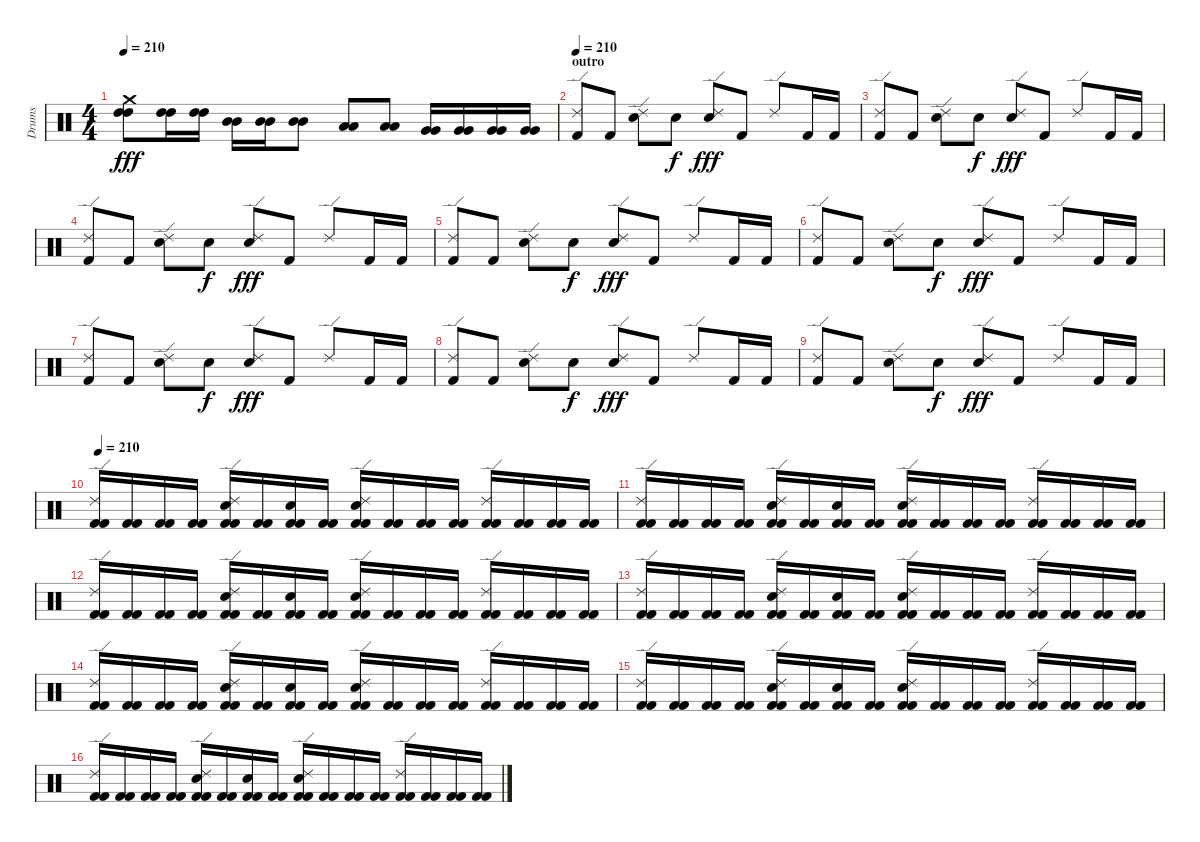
\track ("Drums" "Drums") {instrument percussion}
\staff {score}
\articulation defaults
\ts (4 4)
\tempo 210
\clef neutral
\ks c
("Crash medium (hit)" "High Tom (hit)" "High Tom (hit)").8{dy fff} ("High Tom (hit)" "High Tom (hit)").16 ("High Tom (hit)" "High Tom (hit)").16 ("Mid Tom (hit)" "Mid Tom (hit)").16 ("Mid Tom (hit)" "Mid Tom (hit)").16 ("Mid Tom (hit)" "Mid Tom (hit)").8 ("Low Tom (hit)" "Low Tom (hit)").8 ("Low Tom (hit)" "Low Tom (hit)").8 ("Very Low Tom (hit)" "Very Low Tom (hit)").16 ("Very Low Tom (hit)" "Very Low Tom (hit)").16 ("Very Low Tom (hit)" "Very Low Tom (hit)").16 ("Very Low Tom (hit)" "Very Low Tom (hit)").16 |
\section ("" "outro")
\tempo 210
("Ride (edge) 2" "Kick (hit) 2").8 "Kick (hit) 2".8 ("Ride (edge) 2" "Electric Snare (hit)").8 "Electric Snare (hit)".8{dy f} ("Ride (edge) 2" "Electric Snare (hit)").8{dy fff} "Kick (hit) 2".8 "Ride (edge) 2".8 "Kick (hit) 2".16 "Kick (hit) 2".16 |
("Ride (edge) 2" "Kick (hit) 2").8 "Kick (hit) 2".8 ("Ride (edge) 2" "Electric Snare (hit)").8 "Electric Snare (hit)".8{dy f} ("Ride (edge) 2" "Electric Snare (hit)").8{dy fff} "Kick (hit) 2".8 "Ride (edge) 2".8 "Kick (hit) 2".16 "Kick (hit) 2".16 |
("Ride (edge) 2" "Kick (hit) 2").8 "Kick (hit) 2".8 ("Ride (edge) 2" "Electric Snare (hit)").8 "Electric Snare (hit)".8{dy f} ("Ride (edge) 2" "Electric Snare (hit)").8{dy fff} "Kick (hit) 2".8 "Ride (edge) 2".8 "Kick (hit) 2".16 "Kick (hit) 2".16 |
("Ride (edge) 2" "Kick (hit) 2").8 "Kick (hit) 2".8 ("Ride (edge) 2" "Electric Snare (hit)").8 "Electric Snare (hit)".8{dy f} ("Ride (edge) 2" "Electric Snare (hit)").8{dy fff} "Kick (hit) 2".8 "Ride (edge) 2".8 "Kick (hit) 2".16 "Kick (hit) 2".16 |
("Ride (edge) 2" "Kick (hit) 2").8 "Kick (hit) 2".8 ("Ride (edge) 2" "Electric Snare (hit)").8 "Electric Snare (hit)".8{dy f} ("Ride (edge) 2" "Electric Snare (hit)").8{dy fff} "Kick (hit) 2".8 "Ride (edge) 2".8 "Kick (hit) 2".16 "Kick (hit) 2".16 |
("Ride (edge) 2" "Kick (hit) 2").8 "Kick (hit) 2".8 ("Ride (edge) 2" "Electric Snare (hit)").8 "Electric Snare (hit)".8{dy f} ("Ride (edge) 2" "Electric Snare (hit)").8{dy fff} "Kick (hit) 2".8 "Ride (edge) 2".8 "Kick (hit) 2".16 "Kick (hit) 2".16 |
("Ride (edge) 2" "Kick (hit) 2").8 "Kick (hit) 2".8 ("Ride (edge) 2" "Electric Snare (hit)").8 "Electric Snare (hit)".8{dy f} ("Ride (edge) 2" "Electric Snare (hit)").8{dy fff} "Kick (hit) 2".8 "Ride (edge) 2".8 "Kick (hit) 2".16 "Kick (hit) 2".16 |
("Ride (edge) 2" "Kick (hit) 2").8 "Kick (hit) 2".8 ("Ride (edge) 2" "Electric Snare (hit)").8 "Electric Snare (hit)".8{dy f} ("Ride (edge) 2" "Electric Snare (hit)").8{dy fff} "Kick (hit) 2".8 "Ride (edge) 2".8 "Kick (hit) 2".16 "Kick (hit) 2".16 |
\tempo 210
("Ride (edge) 2" "Kick (hit) 2" "Kick (hit) 2").16 ("Kick (hit) 2" "Kick (hit) 2").16 ("Kick (hit) 2" "Kick (hit) 2").16 ("Kick (hit) 2" "Kick (hit) 2").16 ("Ride (edge) 2" "Electric Snare (hit)" "Kick (hit) 2" "Kick (hit) 2").16 ("Kick (hit) 2" "Kick (hit) 2").16 ("Electric Snare (hit)" "Kick (hit) 2" "Kick (hit) 2").16 ("Kick (hit) 2" "Kick (hit) 2").16 ("Ride (edge) 2" "Electric Snare (hit)" "Kick (hit) 2" "Kick (hit) 2").16 ("Kick (hit) 2" "Kick (hit) 2").16 ("Kick (hit) 2" "Kick (hit) 2").16 ("Kick (hit) 2" "Kick (hit) 2").16 ("Ride (edge) 2" "Kick (hit) 2" "Kick (hit) 2").16 ("Kick (hit) 2" "Kick (hit) 2").16 ("Kick (hit) 2" "Kick (hit) 2").16 ("Kick (hit) 2" "Kick (hit) 2").16 |
("Ride (edge) 2" "Kick (hit) 2" "Kick (hit) 2").16 ("Kick (hit) 2" "Kick (hit) 2").16 ("Kick (hit) 2" "Kick (hit) 2").16 ("Kick (hit) 2" "Kick (hit) 2").16 ("Ride (edge) 2" "Electric Snare (hit)" "Kick (hit) 2" "Kick (hit) 2").16 ("Kick (hit) 2" "Kick (hit) 2").16 ("Electric Snare (hit)" "Kick (hit) 2" "Kick (hit) 2").16 ("Kick (hit) 2" "Kick (hit) 2").16 ("Ride (edge) 2" "Electric Snare (hit)" "Kick (hit) 2" "Kick (hit) 2").16 ("Kick (hit) 2" "Kick (hit) 2").16 ("Kick (hit) 2" "Kick (hit) 2").16 ("Kick (hit) 2" "Kick (hit) 2").16 ("Ride (edge) 2" "Kick (hit) 2" "Kick (hit) 2").16 ("Kick (hit) 2" "Kick (hit) 2").16 ("Kick (hit) 2" "Kick (hit) 2").16 ("Kick (hit) 2" "Kick (hit) 2").16 |
("Ride (edge) 2" "Kick (hit) 2" "Kick (hit) 2").16 ("Kick (hit) 2" "Kick (hit) 2").16 ("Kick (hit) 2" "Kick (hit) 2").16 ("Kick (hit) 2" "Kick (hit) 2").16 ("Ride (edge) 2" "Electric Snare (hit)" "Kick (hit) 2" "Kick (hit) 2").16 ("Kick (hit) 2" "Kick (hit) 2").16 ("Electric Snare (hit)" "Kick (hit) 2" "Kick (hit) 2").16 ("Kick (hit) 2" "Kick (hit) 2").16 ("Ride (edge) 2" "Electric Snare (hit)" "Kick (hit) 2" "Kick (hit) 2").16 ("Kick (hit) 2" "Kick (hit) 2").16 ("Kick (hit) 2" "Kick (hit) 2").16 ("Kick (hit) 2" "Kick (hit) 2").16 ("Ride (edge) 2" "Kick (hit) 2" "Kick (hit) 2").16 ("Kick (hit) 2" "Kick (hit) 2").16 ("Kick (hit) 2" "Kick (hit) 2").16 ("Kick (hit) 2" "Kick (hit) 2").16 |
("Ride (edge) 2" "Kick (hit) 2" "Kick (hit) 2").16 ("Kick (hit) 2" "Kick (hit) 2").16 ("Kick (hit) 2" "Kick (hit) 2").16 ("Kick (hit) 2" "Kick (hit) 2").16 ("Ride (edge) 2" "Electric Snare (hit)" "Kick (hit) 2" "Kick (hit) 2").16 ("Kick (hit) 2" "Kick (hit) 2").16 ("Electric Snare (hit)" "Kick (hit) 2" "Kick (hit) 2").16 ("Kick (hit) 2" "Kick (hit) 2").16 ("Ride (edge) 2" "Electric Snare (hit)" "Kick (hit) 2" "Kick (hit) 2").16 ("Kick (hit) 2" "Kick (hit) 2").16 ("Kick (hit) 2" "Kick (hit) 2").16 ("Kick (hit) 2" "Kick (hit) 2").16 ("Ride (edge) 2" "Kick (hit) 2" "Kick (hit) 2").16 ("Kick (hit) 2" "Kick (hit) 2").16 ("Kick (hit) 2" "Kick (hit) 2").16 ("Kick (hit) 2" "Kick (hit) 2").16 |
("Ride (edge) 2" "Kick (hit) 2" "Kick (hit) 2").16 ("Kick (hit) 2" "Kick (hit) 2").16 ("Kick (hit) 2" "Kick (hit) 2").16 ("Kick (hit) 2" "Kick (hit) 2").16 ("Ride (edge) 2" "Electric Snare (hit)" "Kick (hit) 2" "Kick (hit) 2").16 ("Kick (hit) 2" "Kick (hit) 2").16 ("Electric Snare (hit)" "Kick (hit) 2" "Kick (hit) 2").16 ("Kick (hit) 2" "Kick (hit) 2").16 ("Ride (edge) 2" "Electric Snare (hit)" "Kick (hit) 2" "Kick (hit) 2").16 ("Kick (hit) 2" "Kick (hit) 2").16 ("Kick (hit) 2" "Kick (hit) 2").16 ("Kick (hit) 2" "Kick (hit) 2").16 ("Ride (edge) 2" "Kick (hit) 2" "Kick (hit) 2").16 ("Kick (hit) 2" "Kick (hit) 2").16 ("Kick (hit) 2" "Kick (hit) 2").16 ("Kick (hit) 2" "Kick (hit) 2").16 |
("Ride (edge) 2" "Kick (hit) 2" "Kick (hit) 2").16 ("Kick (hit) 2" "Kick (hit) 2").16 ("Kick (hit) 2" "Kick (hit) 2").16 ("Kick (hit) 2" "Kick (hit) 2").16 ("Ride (edge) 2" "Electric Snare (hit)" "Kick (hit) 2" "Kick (hit) 2").16 ("Kick (hit) 2" "Kick (hit) 2").16 ("Electric Snare (hit)" "Kick (hit) 2" "Kick (hit) 2").16 ("Kick (hit) 2" "Kick (hit) 2").16 ("Ride (edge) 2" "Electric Snare (hit)" "Kick (hit) 2" "Kick (hit) 2").16 ("Kick (hit) 2" "Kick (hit) 2").16 ("Kick (hit) 2" "Kick (hit) 2").16 ("Kick (hit) 2" "Kick (hit) 2").16 ("Ride (edge) 2" "Kick (hit) 2" "Kick (hit) 2").16 ("Kick (hit) 2" "Kick (hit) 2").16 ("Kick (hit) 2" "Kick (hit) 2").16 ("Kick (hit) 2" "Kick (hit) 2").16 |
("Ride (edge) 2" "Kick (hit) 2" "Kick (hit) 2").16 ("Kick (hit) 2" "Kick (hit) 2").16 ("Kick (hit) 2" "Kick (hit) 2").16 ("Kick (hit) 2" "Kick (hit) 2").16 ("Ride (edge) 2" "Electric Snare (hit)" "Kick (hit) 2" "Kick (hit) 2").16 ("Kick (hit) 2" "Kick (hit) 2").16 ("Electric Snare (hit)" "Kick (hit) 2" "Kick (hit) 2").16 ("Kick (hit) 2" "Kick (hit) 2").16 ("Ride (edge) 2" "Electric Snare (hit)" "Kick (hit) 2" "Kick (hit) 2").16 ("Kick (hit) 2" "Kick (hit) 2").16 ("Kick (hit) 2" "Kick (hit) 2").16 ("Kick (hit) 2" "Kick (hit) 2").16 ("Ride (edge) 2" "Kick (hit) 2" "Kick (hit) 2").16 ("Kick (hit) 2" "Kick (hit) 2").16 ("Kick (hit) 2" "Kick (hit) 2").16 ("Kick (hit) 2" "Kick (hit) 2").16
